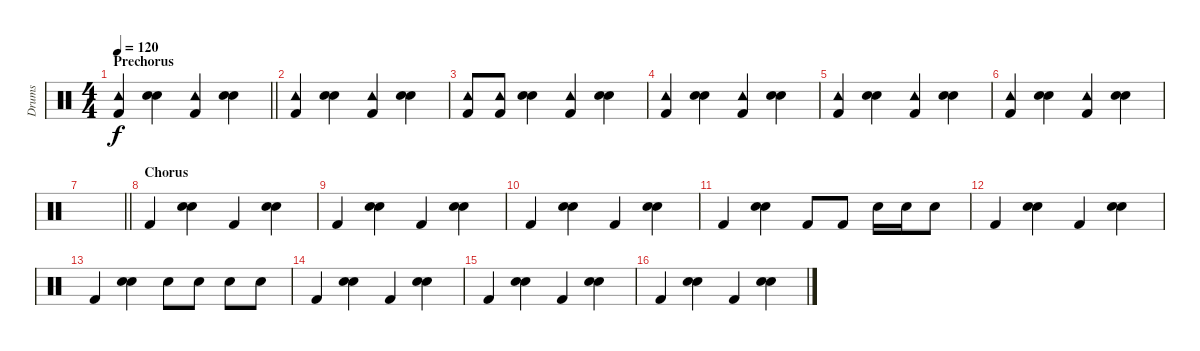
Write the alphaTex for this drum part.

\track ("Drums" "Drums") {instrument percussion}
\staff {score}
\articulation defaults
\ts (4 4)
\section ("" "Prechorus")
\tempo 120
\clef neutral
\barLineRight lightlight
\ks c
("Tambourine (hit)" "Kick (hit) 2").4{dy f} ("Electric Snare (hit)" "Snare (hit) 2").4 ("Tambourine (hit)" "Kick (hit) 2").4 ("Electric Snare (hit)" "Snare (hit) 2").4 |
("Tambourine (hit)" "Kick (hit) 2").4 ("Electric Snare (hit)" "Snare (hit) 2").4 ("Tambourine (hit)" "Kick (hit) 2").4 ("Electric Snare (hit)" "Snare (hit) 2").4 |
("Tambourine (hit)" "Kick (hit) 2").8 ("Tambourine (hit)" "Kick (hit) 2").8 ("Electric Snare (hit)" "Snare (hit) 2").4 ("Tambourine (hit)" "Kick (hit) 2").4 ("Electric Snare (hit)" "Snare (hit) 2").4 |
("Tambourine (hit)" "Kick (hit) 2").4 ("Electric Snare (hit)" "Snare (hit) 2").4 ("Tambourine (hit)" "Kick (hit) 2").4 ("Electric Snare (hit)" "Snare (hit) 2").4 |
("Tambourine (hit)" "Kick (hit) 2").4 ("Electric Snare (hit)" "Snare (hit) 2").4 ("Tambourine (hit)" "Kick (hit) 2").4 ("Electric Snare (hit)" "Snare (hit) 2").4 |
("Tambourine (hit)" "Kick (hit) 2").4 ("Electric Snare (hit)" "Snare (hit) 2").4 ("Tambourine (hit)" "Kick (hit) 2").4 ("Electric Snare (hit)" "Snare (hit) 2").4 |
\barLineRight lightlight
|
\section ("" "Chorus")
"Kick (hit) 2".4 ("Electric Snare (hit)" "Snare (hit) 2").4 "Kick (hit) 2".4 ("Electric Snare (hit)" "Snare (hit) 2").4 |
"Kick (hit) 2".4 ("Electric Snare (hit)" "Snare (hit) 2").4 "Kick (hit) 2".4 ("Electric Snare (hit)" "Snare (hit) 2").4 |
"Kick (hit) 2".4 ("Electric Snare (hit)" "Snare (hit) 2").4 "Kick (hit) 2".4 ("Electric Snare (hit)" "Snare (hit) 2").4 |
"Kick (hit) 2".4 ("Electric Snare (hit)" "Snare (hit) 2").4 "Kick (hit) 2".8 "Kick (hit) 2".8 "Electric Snare (hit)".16 "Electric Snare (hit)".16 "Snare (hit) 2".8 |
"Kick (hit) 2".4 ("Electric Snare (hit)" "Snare (hit) 2").4 "Kick (hit) 2".4 ("Electric Snare (hit)" "Snare (hit) 2").4 |
"Kick (hit) 2".4 ("Electric Snare (hit)" "Snare (hit) 2").4 "Snare (hit) 2".8 "Snare (hit) 2".8 "Snare (hit) 2".8 "Snare (hit) 2".8 |
"Kick (hit) 2".4 ("Electric Snare (hit)" "Snare (hit) 2").4 "Kick (hit) 2".4 ("Electric Snare (hit)" "Snare (hit) 2").4 |
"Kick (hit) 2".4 ("Electric Snare (hit)" "Snare (hit) 2").4 "Kick (hit) 2".4 ("Electric Snare (hit)" "Snare (hit) 2").4 |
"Kick (hit) 2".4 ("Electric Snare (hit)" "Snare (hit) 2").4 "Kick (hit) 2".4 ("Electric Snare (hit)" "Snare (hit) 2").4
